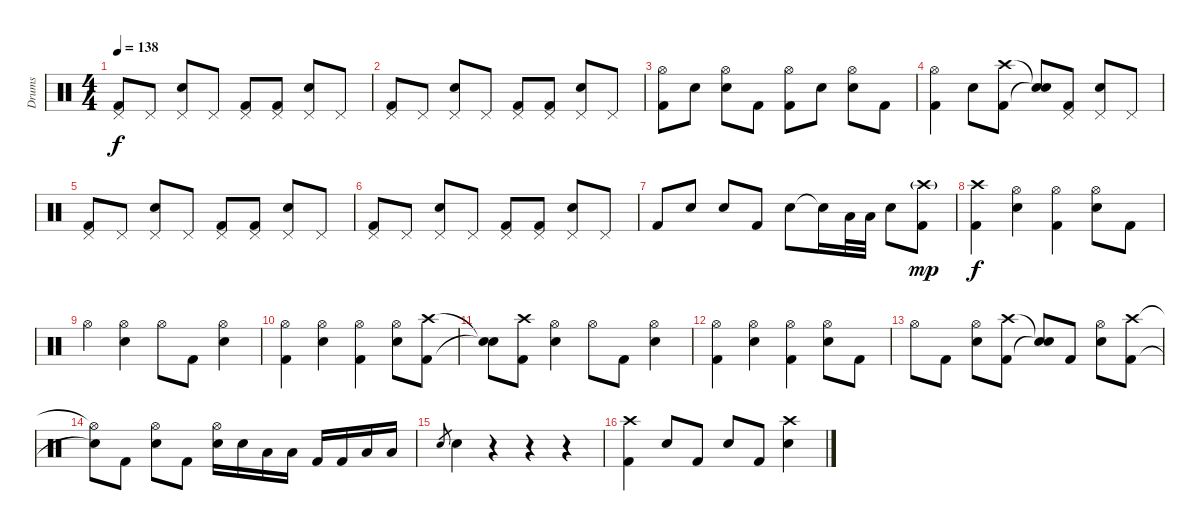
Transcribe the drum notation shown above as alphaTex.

\track ("Drums" "Drums") {instrument percussion}
\staff {score}
\articulation defaults
\ts (4 4)
\tempo 138
\clef neutral
\ks c
("Pedal Hi-Hat (hit)" "Kick (hit) 2").8{dy f} "Pedal Hi-Hat (hit)".8 ("Pedal Hi-Hat (hit)" "Electric Snare (hit)").8 "Pedal Hi-Hat (hit)".8 ("Pedal Hi-Hat (hit)" "Kick (hit) 2").8 ("Pedal Hi-Hat (hit)" "Kick (hit) 2").8 ("Pedal Hi-Hat (hit)" "Electric Snare (hit)").8 "Pedal Hi-Hat (hit)".8 |
("Pedal Hi-Hat (hit)" "Kick (hit) 2").8 "Pedal Hi-Hat (hit)".8 ("Pedal Hi-Hat (hit)" "Electric Snare (hit)").8 "Pedal Hi-Hat (hit)".8 ("Pedal Hi-Hat (hit)" "Kick (hit) 2").8 ("Pedal Hi-Hat (hit)" "Kick (hit) 2").8 ("Pedal Hi-Hat (hit)" "Electric Snare (hit)").8 "Pedal Hi-Hat (hit)".8 |
("Hi-Hat (open)" "Kick (hit) 2").8 "Electric Snare (hit)".8 ("Hi-Hat (open)" "Electric Snare (hit)").8 "Kick (hit) 2".8 ("Hi-Hat (open)" "Kick (hit) 2").8 "Electric Snare (hit)".8 ("Hi-Hat (open)" "Electric Snare (hit)").8 "Kick (hit) 2".8 |
("Hi-Hat (open)" "Kick (hit) 2").4 "Electric Snare (hit)".8 ("Crash high (hit)" "Kick (hit) 2").8 ("Snare (hit)"{t} "Snare (hit)"{t}).8 ("Pedal Hi-Hat (hit)" "Kick (hit) 2").8 ("Pedal Hi-Hat (hit)" "Electric Snare (hit)").8 "Pedal Hi-Hat (hit)".8 |
("Pedal Hi-Hat (hit)" "Kick (hit) 2").8 "Pedal Hi-Hat (hit)".8 ("Pedal Hi-Hat (hit)" "Electric Snare (hit)").8 "Pedal Hi-Hat (hit)".8 ("Pedal Hi-Hat (hit)" "Kick (hit) 2").8 ("Pedal Hi-Hat (hit)" "Kick (hit) 2").8 ("Pedal Hi-Hat (hit)" "Electric Snare (hit)").8 "Pedal Hi-Hat (hit)".8 |
("Pedal Hi-Hat (hit)" "Kick (hit) 2").8 "Pedal Hi-Hat (hit)".8 ("Pedal Hi-Hat (hit)" "Electric Snare (hit)").8 "Pedal Hi-Hat (hit)".8 ("Pedal Hi-Hat (hit)" "Kick (hit) 2").8 ("Pedal Hi-Hat (hit)" "Kick (hit) 2").8 ("Pedal Hi-Hat (hit)" "Electric Snare (hit)").8 "Pedal Hi-Hat (hit)".8 |
"Kick (hit) 2".8 "Electric Snare (hit)".8 "Electric Snare (hit)".8 "Kick (hit) 2".8 "Electric Snare (hit)".8 "Snare (hit)"{t}.16 "Low Tom (hit)".32 "Low Tom (hit)".32 "Electric Snare (hit)".8 ("Crash high (hit)"{g} "Kick (hit) 2").8{dy mp} |
("Crash high (hit)" "Kick (hit) 2").4{dy f} ("Hi-Hat (open)" "Electric Snare (hit)").4 ("Hi-Hat (open)" "Kick (hit) 2").4 ("Hi-Hat (open)" "Electric Snare (hit)").8 "Kick (hit) 2".8 |
"Hi-Hat (open)".4 ("Hi-Hat (open)" "Electric Snare (hit)").4 "Hi-Hat (open)".8 "Kick (hit) 2".8 ("Hi-Hat (open)" "Electric Snare (hit)").4 |
("Hi-Hat (open)" "Kick (hit) 2").4 ("Hi-Hat (open)" "Electric Snare (hit)").4 ("Hi-Hat (open)" "Kick (hit) 2").4 ("Hi-Hat (open)" "Electric Snare (hit)").8 ("Crash high (hit)" "Kick (hit) 2").8 |
("Snare (hit)"{t} "Snare (hit)"{t}).8 ("Crash high (hit)" "Kick (hit) 2").8 ("Hi-Hat (open)" "Electric Snare (hit)").4 "Hi-Hat (open)".8 "Kick (hit) 2".8 ("Hi-Hat (open)" "Electric Snare (hit)").4 |
("Hi-Hat (open)" "Kick (hit) 2").4 ("Hi-Hat (open)" "Electric Snare (hit)").4 ("Hi-Hat (open)" "Kick (hit) 2").4 ("Hi-Hat (open)" "Electric Snare (hit)").8 "Kick (hit) 2".8 |
"Hi-Hat (open)".8 "Kick (hit) 2".8 ("Hi-Hat (open)" "Electric Snare (hit)").8 ("Crash high (hit)" "Kick (hit) 2").8 ("Snare (hit)"{t} "Snare (hit)"{t}).8 "Kick (hit) 2".8 ("Hi-Hat (open)" "Electric Snare (hit)").8 ("Crash high (hit)" "Kick (hit) 2").8 |
("Hi-Hat (open)"{t} "Snare (hit)"{t}).8 "Kick (hit) 2".8 ("Hi-Hat (open)" "Electric Snare (hit)").8 "Kick (hit) 2".8 ("Hi-Hat (open)" "Electric Snare (hit)").16 "Electric Snare (hit)".16 "Low Tom (hit)".16 "Low Tom (hit)".16 "Kick (hit) 2".16 "Kick (hit) 2".16 "Low Tom (hit)".16 "Low Tom (hit)".16 |
"Electric Snare (hit)".8{gr} "Electric Snare (hit)".4 r.4 r.4 r.4 |
("Crash high (hit)" "Kick (hit) 2").4 "Electric Snare (hit)".8 "Kick (hit) 2".8 "Electric Snare (hit)".8 "Kick (hit) 2".8 ("Crash high (hit)" "Electric Snare (hit)").4
